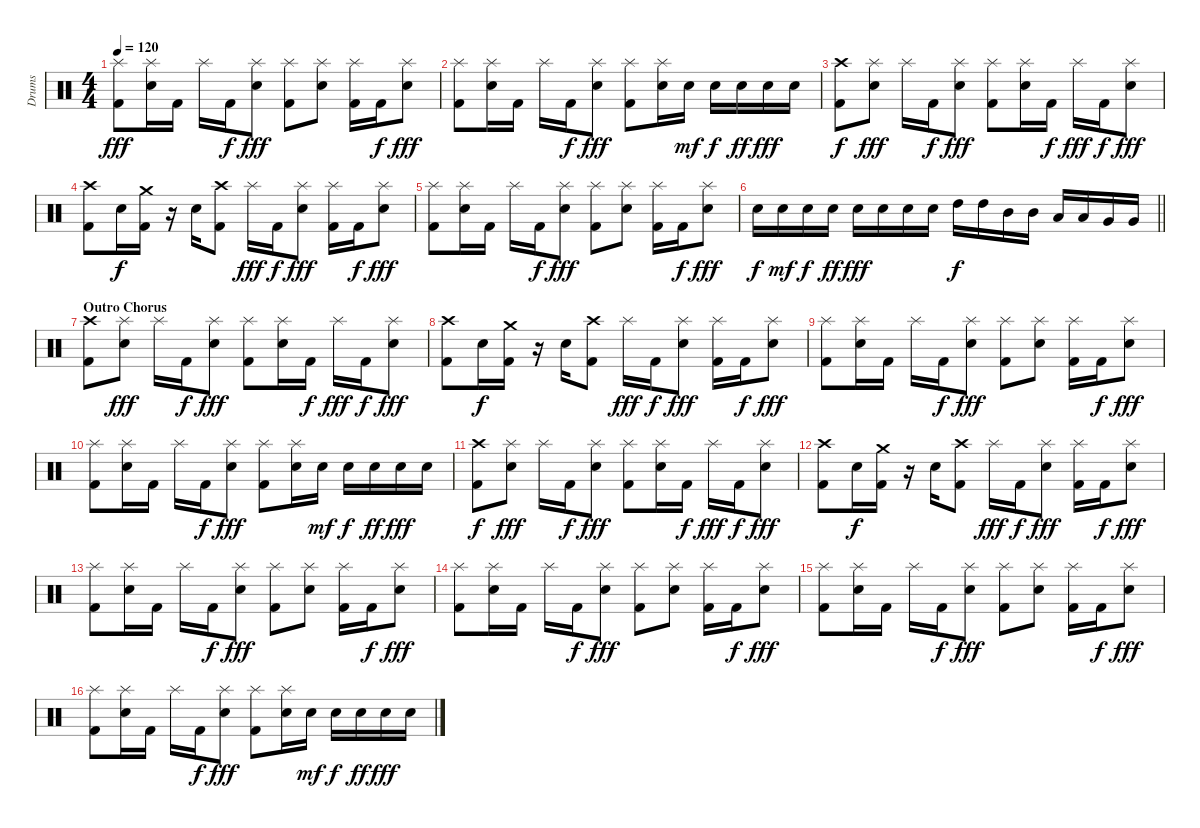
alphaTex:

\track ("Drums" "Drums") {instrument percussion}
\staff {score}
\articulation defaults
\ts (4 4)
\tempo 120
\clef neutral
\ks c
("Splash (hit)" "Kick (hit) 2").8{dy fff} ("Splash (hit)" "Snare (hit) 2").16 "Kick (hit) 2".16 "Splash (hit)".16 "Kick (hit) 2".16{dy f} ("Splash (hit)" "Snare (hit) 2").8{dy fff} ("Splash (hit)" "Kick (hit) 2").8 ("Splash (hit)" "Snare (hit) 2").8 ("Splash (hit)" "Kick (hit) 2").16 "Kick (hit) 2".16{dy f} ("Splash (hit)" "Snare (hit) 2").8{dy fff} |
("Splash (hit)" "Kick (hit) 2").8 ("Splash (hit)" "Snare (hit) 2").16 "Kick (hit) 2".16 "Splash (hit)".16 "Kick (hit) 2".16{dy f} ("Splash (hit)" "Snare (hit) 2").8{dy fff} ("Splash (hit)" "Kick (hit) 2").8 ("Splash (hit)" "Snare (hit) 2").16 "Snare (hit) 2".16{dy mf} "Snare (hit) 2".16{dy f} "Snare (hit) 2".16{dy ff} "Snare (hit) 2".16{dy fff} "Snare (hit) 2".16 |
("Crash high (hit)" "Kick (hit) 2").8{dy f} ("Splash (hit)" "Snare (hit) 2").8{dy fff} "Splash (hit)".16 "Kick (hit) 2".16{dy f} ("Splash (hit)" "Snare (hit) 2").8{dy fff} ("Splash (hit)" "Kick (hit) 2").8 ("Splash (hit)" "Snare (hit) 2").16 "Kick (hit) 2".16{dy f} "Splash (hit)".16{dy fff} "Kick (hit) 2".16{dy f} ("Splash (hit)" "Snare (hit) 2").8{dy fff} |
("Crash high (hit)" "Kick (hit) 2").8 "Snare (hit) 2".16{dy f} ("Crash medium (hit)" "Kick (hit) 2").16 r.16 "Snare (hit) 2".16 ("Crash high (hit)" "Kick (hit) 2").8 "Splash (hit)".16{dy fff} "Kick (hit) 2".16{dy f} ("Splash (hit)" "Snare (hit) 2").8{dy fff} ("Splash (hit)" "Kick (hit) 2").16 "Kick (hit) 2".16{dy f} ("Splash (hit)" "Snare (hit) 2").8{dy fff} |
("Splash (hit)" "Kick (hit) 2").8 ("Splash (hit)" "Snare (hit) 2").16 "Kick (hit) 2".16 "Splash (hit)".16 "Kick (hit) 2".16{dy f} ("Splash (hit)" "Snare (hit) 2").8{dy fff} ("Splash (hit)" "Kick (hit) 2").8 ("Splash (hit)" "Snare (hit) 2").8 ("Splash (hit)" "Kick (hit) 2").16 "Kick (hit) 2".16{dy f} ("Splash (hit)" "Snare (hit) 2").8{dy fff} |
\barLineRight lightlight "Snare (hit) 2".16{dy f} "Snare (hit) 2".16{dy mf} "Snare (hit) 2".16{dy f} "Snare (hit) 2".16{dy ff} "Snare (hit) 2".16{dy fff} "Snare (hit) 2".16 "Snare (hit) 2".16 "Snare (hit) 2".16 "High Tom (hit)".16{dy f} "High Tom (hit)".16 "Mid Tom (hit)".16 "Mid Tom (hit)".16 "Low Tom (hit)".16 "Low Tom (hit)".16 "Very Low Tom (hit)".16 "Very Low Tom (hit)".16
|
\section ("" "Outro Chorus")
("Crash high (hit)" "Kick (hit) 2").8 ("Splash (hit)" "Snare (hit) 2").8{dy fff} "Splash (hit)".16 "Kick (hit) 2".16{dy f} ("Splash (hit)" "Snare (hit) 2").8{dy fff} ("Splash (hit)" "Kick (hit) 2").8 ("Splash (hit)" "Snare (hit) 2").16 "Kick (hit) 2".16{dy f} "Splash (hit)".16{dy fff} "Kick (hit) 2".16{dy f} ("Splash (hit)" "Snare (hit) 2").8{dy fff} |
("Crash high (hit)" "Kick (hit) 2").8 "Snare (hit) 2".16{dy f} ("Crash medium (hit)" "Kick (hit) 2").16 r.16 "Snare (hit) 2".16 ("Crash high (hit)" "Kick (hit) 2").8 "Splash (hit)".16{dy fff} "Kick (hit) 2".16{dy f} ("Splash (hit)" "Snare (hit) 2").8{dy fff} ("Splash (hit)" "Kick (hit) 2").16 "Kick (hit) 2".16{dy f} ("Splash (hit)" "Snare (hit) 2").8{dy fff} |
("Splash (hit)" "Kick (hit) 2").8 ("Splash (hit)" "Snare (hit) 2").16 "Kick (hit) 2".16 "Splash (hit)".16 "Kick (hit) 2".16{dy f} ("Splash (hit)" "Snare (hit) 2").8{dy fff} ("Splash (hit)" "Kick (hit) 2").8 ("Splash (hit)" "Snare (hit) 2").8 ("Splash (hit)" "Kick (hit) 2").16 "Kick (hit) 2".16{dy f} ("Splash (hit)" "Snare (hit) 2").8{dy fff} |
("Splash (hit)" "Kick (hit) 2").8 ("Splash (hit)" "Snare (hit) 2").16 "Kick (hit) 2".16 "Splash (hit)".16 "Kick (hit) 2".16{dy f} ("Splash (hit)" "Snare (hit) 2").8{dy fff} ("Splash (hit)" "Kick (hit) 2").8 ("Splash (hit)" "Snare (hit) 2").16 "Snare (hit) 2".16{dy mf} "Snare (hit) 2".16{dy f} "Snare (hit) 2".16{dy ff} "Snare (hit) 2".16{dy fff} "Snare (hit) 2".16 |
("Crash high (hit)" "Kick (hit) 2").8{dy f} ("Splash (hit)" "Snare (hit) 2").8{dy fff} "Splash (hit)".16 "Kick (hit) 2".16{dy f} ("Splash (hit)" "Snare (hit) 2").8{dy fff} ("Splash (hit)" "Kick (hit) 2").8 ("Splash (hit)" "Snare (hit) 2").16 "Kick (hit) 2".16{dy f} "Splash (hit)".16{dy fff} "Kick (hit) 2".16{dy f} ("Splash (hit)" "Snare (hit) 2").8{dy fff} |
("Crash high (hit)" "Kick (hit) 2").8 "Snare (hit) 2".16{dy f} ("Crash medium (hit)" "Kick (hit) 2").16 r.16 "Snare (hit) 2".16 ("Crash high (hit)" "Kick (hit) 2").8 "Splash (hit)".16{dy fff} "Kick (hit) 2".16{dy f} ("Splash (hit)" "Snare (hit) 2").8{dy fff} ("Splash (hit)" "Kick (hit) 2").16 "Kick (hit) 2".16{dy f} ("Splash (hit)" "Snare (hit) 2").8{dy fff} |
("Splash (hit)" "Kick (hit) 2").8 ("Splash (hit)" "Snare (hit) 2").16 "Kick (hit) 2".16 "Splash (hit)".16 "Kick (hit) 2".16{dy f} ("Splash (hit)" "Snare (hit) 2").8{dy fff} ("Splash (hit)" "Kick (hit) 2").8 ("Splash (hit)" "Snare (hit) 2").8 ("Splash (hit)" "Kick (hit) 2").16 "Kick (hit) 2".16{dy f} ("Splash (hit)" "Snare (hit) 2").8{dy fff} |
("Splash (hit)" "Kick (hit) 2").8 ("Splash (hit)" "Snare (hit) 2").16 "Kick (hit) 2".16 "Splash (hit)".16 "Kick (hit) 2".16{dy f} ("Splash (hit)" "Snare (hit) 2").8{dy fff} ("Splash (hit)" "Kick (hit) 2").8 ("Splash (hit)" "Snare (hit) 2").8 ("Splash (hit)" "Kick (hit) 2").16 "Kick (hit) 2".16{dy f} ("Splash (hit)" "Snare (hit) 2").8{dy fff} |
("Splash (hit)" "Kick (hit) 2").8 ("Splash (hit)" "Snare (hit) 2").16 "Kick (hit) 2".16 "Splash (hit)".16 "Kick (hit) 2".16{dy f} ("Splash (hit)" "Snare (hit) 2").8{dy fff} ("Splash (hit)" "Kick (hit) 2").8 ("Splash (hit)" "Snare (hit) 2").8 ("Splash (hit)" "Kick (hit) 2").16 "Kick (hit) 2".16{dy f} ("Splash (hit)" "Snare (hit) 2").8{dy fff} |
("Splash (hit)" "Kick (hit) 2").8 ("Splash (hit)" "Snare (hit) 2").16 "Kick (hit) 2".16 "Splash (hit)".16 "Kick (hit) 2".16{dy f} ("Splash (hit)" "Snare (hit) 2").8{dy fff} ("Splash (hit)" "Kick (hit) 2").8 ("Splash (hit)" "Snare (hit) 2").16 "Snare (hit) 2".16{dy mf} "Snare (hit) 2".16{dy f} "Snare (hit) 2".16{dy ff} "Snare (hit) 2".16{dy fff} "Snare (hit) 2".16
